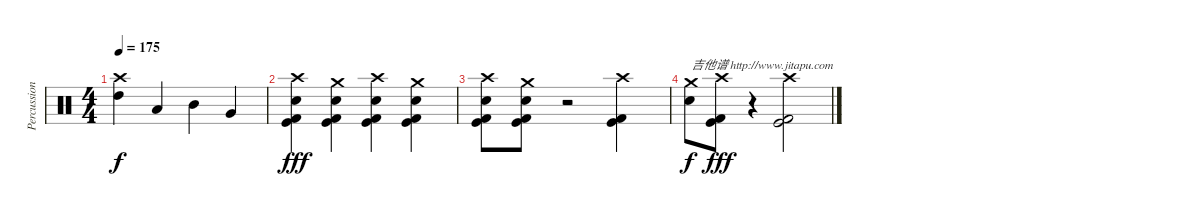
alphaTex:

\track ("Percussion" "Percussion") {instrument percussion}
\staff {score}
\articulation defaults
\ts (4 4)
\tempo 175
\clef neutral
\ks c
("Crash high (hit)" "High Tom (hit)").4{dy f} "Low Tom (hit)".4 "Mid Tom (hit)".4 "Very Low Tom (hit)".4 |
("Crash high (hit)" "Electric Snare (hit)" "Kick (hit)" "Kick (hit) 2").4{dy fff} ("Crash medium (hit)" "Electric Snare (hit)" "Kick (hit)" "Kick (hit) 2").4 ("Crash high (hit)" "Electric Snare (hit)" "Kick (hit)" "Kick (hit) 2").4 ("Crash medium (hit)" "Electric Snare (hit)" "Kick (hit)" "Kick (hit) 2").4 |
("Crash high (hit)" "Electric Snare (hit)" "Kick (hit)" "Kick (hit) 2").8 ("Crash medium (hit)" "Electric Snare (hit)" "Kick (hit)" "Kick (hit) 2").8 r.2 ("Crash high (hit)" "Kick (hit)" "Kick (hit) 2").4 |
("Crash medium (hit)" "Electric Snare (hit)").8{txt "吉他谱 http://www.jitapu.com" dy f} ("Crash high (hit)" "Kick (hit)" "Kick (hit) 2").8{dy fff} r.4 ("Crash high (hit)" "Kick (hit)" "Kick (hit) 2").2
